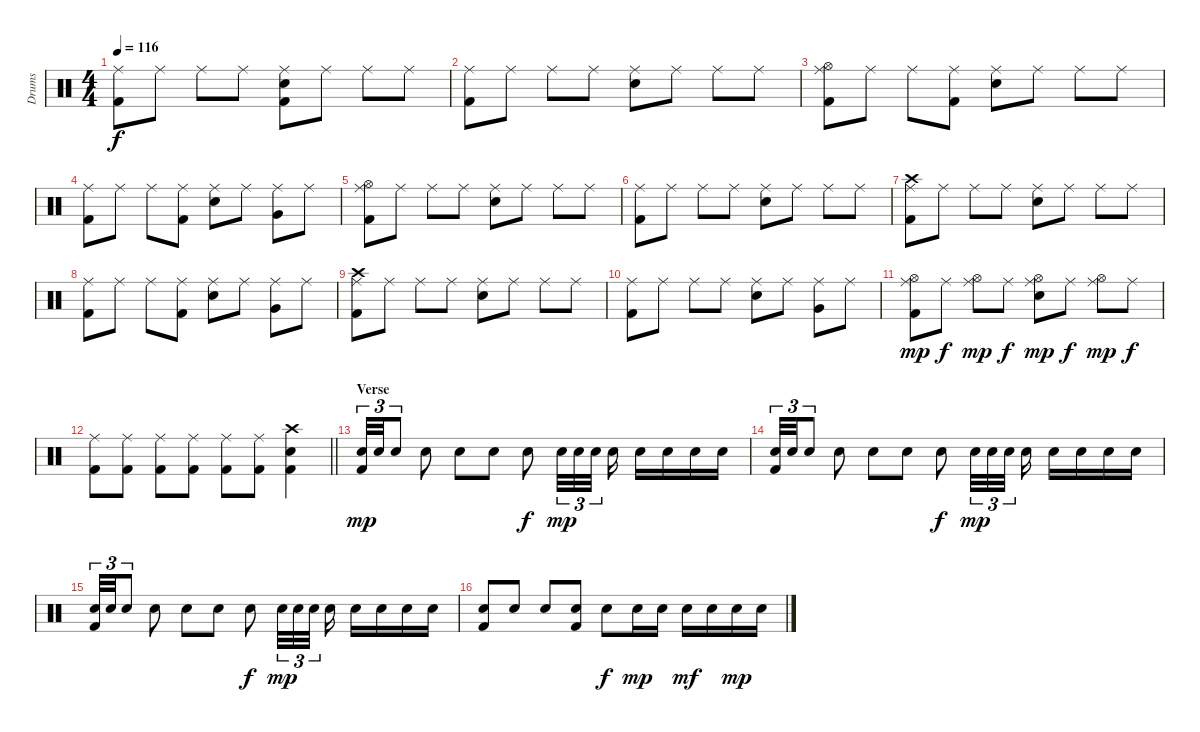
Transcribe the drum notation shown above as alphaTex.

\track ("Drums" "Drums") {instrument percussion}
\staff {score}
\articulation defaults
\ts (4 4)
\tempo 116
\clef neutral
\ks c
("Kick (hit) 2" "Ride (middle)").8{dy f} "Ride (middle)".8 "Ride (middle)".8 "Ride (middle)".8 ("Kick (hit) 2" "Snare (hit) 2" "Ride (middle)").8 "Ride (middle)".8 "Ride (middle)".8 "Ride (middle)".8 |
("Kick (hit) 2" "Ride (middle)").8 "Ride (middle)".8 "Ride (middle)".8 "Ride (middle)".8 ("Snare (hit) 2" "Ride (middle)").8 "Ride (middle)".8 "Ride (middle)".8 "Ride (middle)".8 |
("Kick (hit) 2" "Hi-Hat (open)" "Ride (middle)").8 "Ride (middle)".8 "Ride (middle)".8 ("Kick (hit) 2" "Ride (middle)").8 ("Snare (hit) 2" "Ride (middle)").8 "Ride (middle)".8 "Ride (middle)".8 "Ride (middle)".8 |
("Kick (hit) 2" "Ride (middle)").8 "Ride (middle)".8 "Ride (middle)".8 ("Kick (hit) 2" "Ride (middle)").8 ("Snare (hit) 2" "Ride (middle)").8 "Ride (middle)".8 ("Very Low Tom (hit)" "Ride (middle)").8 "Ride (middle)".8 |
("Kick (hit) 2" "Hi-Hat (open)" "Ride (middle)").8 "Ride (middle)".8 "Ride (middle)".8 "Ride (middle)".8 ("Snare (hit) 2" "Ride (middle)").8 "Ride (middle)".8 "Ride (middle)".8 "Ride (middle)".8 |
("Kick (hit) 2" "Ride (middle)").8 "Ride (middle)".8 "Ride (middle)".8 "Ride (middle)".8 ("Snare (hit) 2" "Ride (middle)").8 "Ride (middle)".8 "Ride (middle)".8 "Ride (middle)".8 |
("Kick (hit) 2" "Crash high (hit)" "Ride (middle)").8 "Ride (middle)".8 "Ride (middle)".8 "Ride (middle)".8 ("Snare (hit) 2" "Ride (middle)").8 "Ride (middle)".8 "Ride (middle)".8 "Ride (middle)".8 |
("Kick (hit) 2" "Ride (middle)").8 "Ride (middle)".8 "Ride (middle)".8 ("Kick (hit) 2" "Ride (middle)").8 ("Snare (hit) 2" "Ride (middle)").8 "Ride (middle)".8 ("Very Low Tom (hit)" "Ride (middle)").8 "Ride (middle)".8 |
("Kick (hit) 2" "Crash high (hit)" "Ride (middle)").8 "Ride (middle)".8 "Ride (middle)".8 "Ride (middle)".8 ("Snare (hit) 2" "Ride (middle)").8 "Ride (middle)".8 "Ride (middle)".8 "Ride (middle)".8 |
("Kick (hit) 2" "Ride (middle)").8 "Ride (middle)".8 "Ride (middle)".8 "Ride (middle)".8 ("Snare (hit) 2" "Ride (middle)").8 "Ride (middle)".8 ("Very Low Tom (hit)" "Ride (middle)").8 "Ride (middle)".8 |
("Kick (hit) 2" "Hi-Hat (open)" "Ride (middle)").8{dy mp} "Ride (middle)".8{dy f} ("Hi-Hat (open)" "Ride (middle)").8{dy mp} "Ride (middle)".8{dy f} ("Snare (hit) 2" "Hi-Hat (open)" "Ride (middle)").8{dy mp} "Ride (middle)".8{dy f} ("Hi-Hat (open)" "Ride (middle)").8{dy mp} "Ride (middle)".8{dy f} |
\barLineRight lightlight
("Kick (hit) 2" "Ride (middle)").8 ("Kick (hit) 2" "Ride (middle)").8 ("Kick (hit) 2" "Ride (middle)").8 ("Kick (hit) 2" "Ride (middle)").8 ("Kick (hit) 2" "Ride (middle)").8 ("Kick (hit) 2" "Ride (middle)").8 ("Kick (hit) 2" "Snare (hit) 2" "Crash high (hit)").4 |
\section ("" "Verse")
("Kick (hit) 2" "Snare (hit) 2").32{tu (3 2) dy mp} "Snare (hit) 2".32{tu (3 2)} "Snare (hit) 2".8{tu (3 2)} "Snare (hit) 2".8 "Snare (hit) 2".8 "Snare (hit) 2".8 "Snare (hit) 2".8{dy f} "Snare (hit) 2".32{tu (3 2) dy mp} "Snare (hit) 2".32{tu (3 2)} "Snare (hit) 2".32{tu (3 2)} "Snare (hit) 2".16 "Snare (hit) 2".16 "Snare (hit) 2".16 "Snare (hit) 2".16 "Snare (hit) 2".16 |
("Kick (hit) 2" "Snare (hit) 2").32{tu (3 2)} "Snare (hit) 2".32{tu (3 2)} "Snare (hit) 2".8{tu (3 2)} "Snare (hit) 2".8 "Snare (hit) 2".8 "Snare (hit) 2".8 "Snare (hit) 2".8{dy f} "Snare (hit) 2".32{tu (3 2) dy mp} "Snare (hit) 2".32{tu (3 2)} "Snare (hit) 2".32{tu (3 2)} "Snare (hit) 2".16 "Snare (hit) 2".16 "Snare (hit) 2".16 "Snare (hit) 2".16 "Snare (hit) 2".16 |
("Kick (hit) 2" "Snare (hit) 2").32{tu (3 2)} "Snare (hit) 2".32{tu (3 2)} "Snare (hit) 2".8{tu (3 2)} "Snare (hit) 2".8 "Snare (hit) 2".8 "Snare (hit) 2".8 "Snare (hit) 2".8{dy f} "Snare (hit) 2".32{tu (3 2) dy mp} "Snare (hit) 2".32{tu (3 2)} "Snare (hit) 2".32{tu (3 2)} "Snare (hit) 2".16 "Snare (hit) 2".16 "Snare (hit) 2".16 "Snare (hit) 2".16 "Snare (hit) 2".16 |
("Kick (hit) 2" "Snare (hit) 2").8 "Snare (hit) 2".8 "Snare (hit) 2".8 ("Kick (hit) 2" "Snare (hit) 2").8 "Snare (hit) 2".8{dy f} "Snare (hit) 2".16{dy mp} "Snare (hit) 2".16 "Snare (hit) 2".16{dy mf} "Snare (hit) 2".16 "Snare (hit) 2".16{dy mp} "Snare (hit) 2".16
